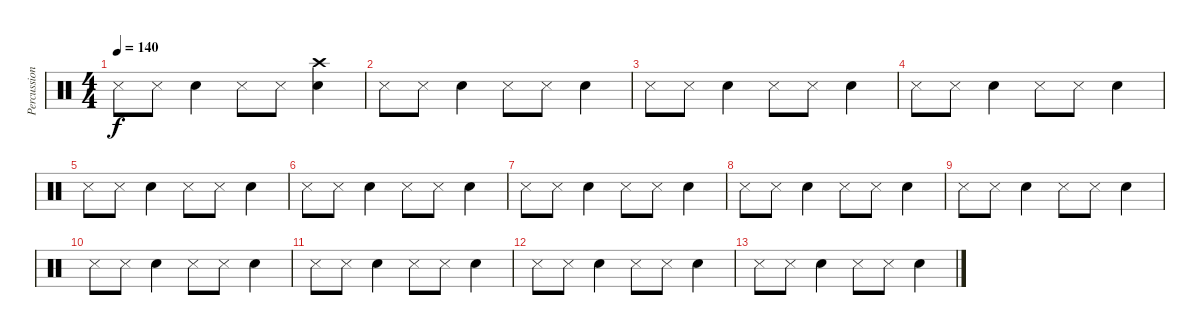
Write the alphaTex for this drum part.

\track ("Percussion" "Percussion") {instrument percussion}
\staff {score}
\articulation defaults
\ts (4 4)
\tempo 140
\clef neutral
\ks c "Snare (side stick) 3".8{dy f} "Snare (side stick) 3".8 "Snare (hit) 2".4 "Snare (side stick) 3".8 "Snare (side stick) 3".8
("Crash high (hit)" "Snare (hit) 2").4 |
"Snare (side stick) 3".8 "Snare (side stick) 3".8 "Snare (hit) 2".4 "Snare (side stick) 3".8 "Snare (side stick) 3".8 "Snare (hit) 2".4 |
"Snare (side stick) 3".8 "Snare (side stick) 3".8 "Snare (hit) 2".4 "Snare (side stick) 3".8 "Snare (side stick) 3".8 "Snare (hit) 2".4 |
"Snare (side stick) 3".8 "Snare (side stick) 3".8 "Snare (hit) 2".4 "Snare (side stick) 3".8 "Snare (side stick) 3".8 "Snare (hit) 2".4 |
"Snare (side stick) 3".8 "Snare (side stick) 3".8 "Snare (hit) 2".4 "Snare (side stick) 3".8 "Snare (side stick) 3".8 "Snare (hit) 2".4 |
"Snare (side stick) 3".8 "Snare (side stick) 3".8 "Snare (hit) 2".4 "Snare (side stick) 3".8 "Snare (side stick) 3".8 "Snare (hit) 2".4 |
"Snare (side stick) 3".8 "Snare (side stick) 3".8 "Snare (hit) 2".4 "Snare (side stick) 3".8 "Snare (side stick) 3".8 "Snare (hit) 2".4 |
"Snare (side stick) 3".8 "Snare (side stick) 3".8 "Snare (hit) 2".4 "Snare (side stick) 3".8 "Snare (side stick) 3".8 "Snare (hit) 2".4 |
"Snare (side stick) 3".8 "Snare (side stick) 3".8 "Snare (hit) 2".4 "Snare (side stick) 3".8 "Snare (side stick) 3".8 "Snare (hit) 2".4 |
"Snare (side stick) 3".8 "Snare (side stick) 3".8 "Snare (hit) 2".4 "Snare (side stick) 3".8 "Snare (side stick) 3".8 "Snare (hit) 2".4 |
"Snare (side stick) 3".8 "Snare (side stick) 3".8 "Snare (hit) 2".4 "Snare (side stick) 3".8 "Snare (side stick) 3".8 "Snare (hit) 2".4 |
"Snare (side stick) 3".8 "Snare (side stick) 3".8 "Snare (hit) 2".4 "Snare (side stick) 3".8 "Snare (side stick) 3".8 "Snare (hit) 2".4 |
"Snare (side stick) 3".8 "Snare (side stick) 3".8 "Snare (hit) 2".4 "Snare (side stick) 3".8 "Snare (side stick) 3".8 "Snare (hit) 2".4
